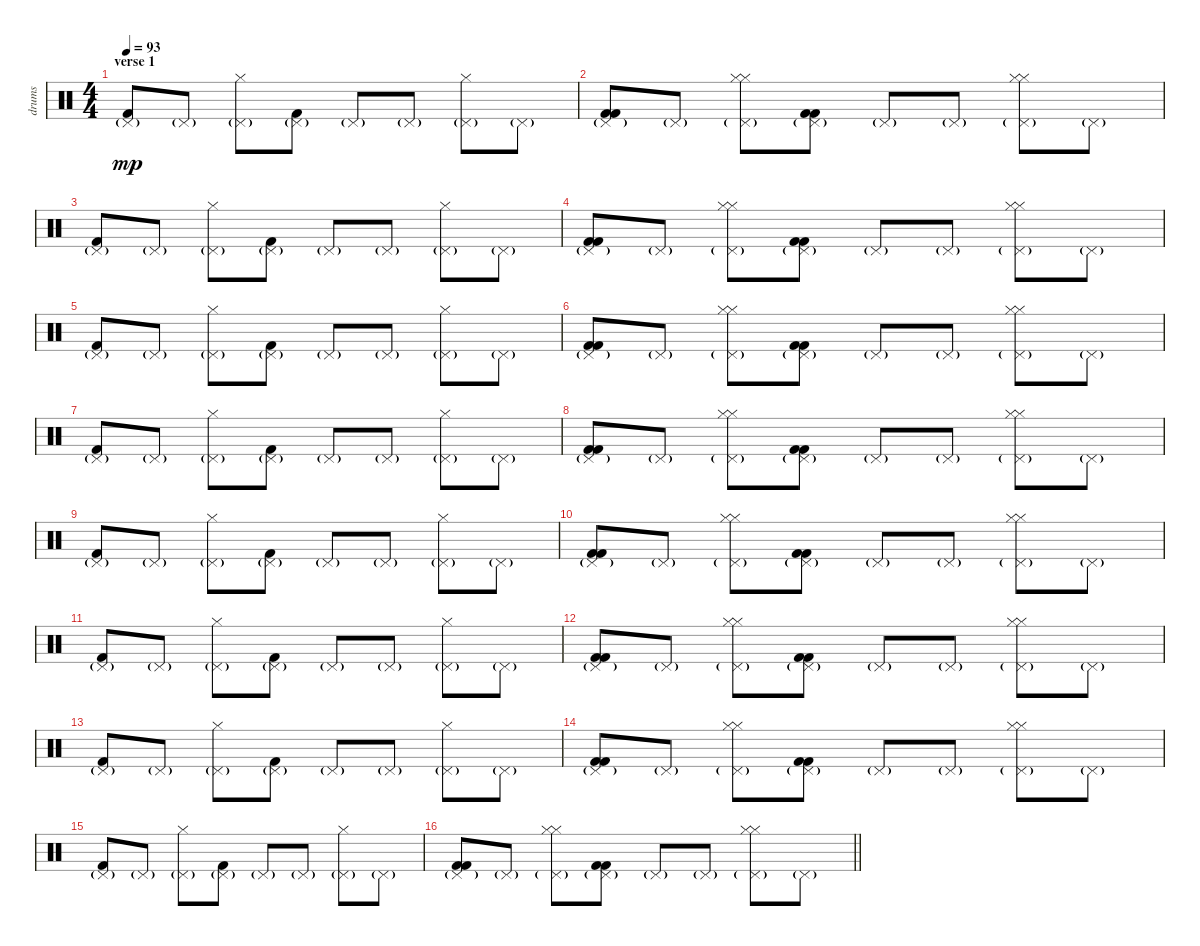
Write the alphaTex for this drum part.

\track ("drums" "drums") {instrument percussion}
\staff {score}
\articulation defaults
\ts (4 4)
\section ("" "verse 1")
\tempo 93
\clef neutral
\ks c
("Kick (hit) 2" "Pedal Hi-Hat (hit)"{g}).8{dy mp} "Pedal Hi-Hat (hit)"{g}.8 ("Hi-Hat (closed)" "Pedal Hi-Hat (hit)"{g}).8 ("Kick (hit) 2" "Pedal Hi-Hat (hit)"{g}).8 "Pedal Hi-Hat (hit)"{g}.8 "Pedal Hi-Hat (hit)"{g}.8 ("Hi-Hat (closed)" "Pedal Hi-Hat (hit)"{g}).8 "Pedal Hi-Hat (hit)"{g}.8 |
("Kick (hit) 2" "Kick (hit) 2" "Pedal Hi-Hat (hit)"{g}).8 "Pedal Hi-Hat (hit)"{g}.8 ("Hi-Hat (closed)" "Hi-Hat (closed)" "Pedal Hi-Hat (hit)"{g}).8 ("Kick (hit) 2" "Kick (hit) 2" "Pedal Hi-Hat (hit)"{g}).8 "Pedal Hi-Hat (hit)"{g}.8 "Pedal Hi-Hat (hit)"{g}.8 ("Hi-Hat (closed)" "Hi-Hat (closed)" "Pedal Hi-Hat (hit)"{g}).8 "Pedal Hi-Hat (hit)"{g}.8 |
("Kick (hit) 2" "Pedal Hi-Hat (hit)"{g}).8 "Pedal Hi-Hat (hit)"{g}.8 ("Hi-Hat (closed)" "Pedal Hi-Hat (hit)"{g}).8 ("Kick (hit) 2" "Pedal Hi-Hat (hit)"{g}).8 "Pedal Hi-Hat (hit)"{g}.8 "Pedal Hi-Hat (hit)"{g}.8 ("Hi-Hat (closed)" "Pedal Hi-Hat (hit)"{g}).8 "Pedal Hi-Hat (hit)"{g}.8 |
("Kick (hit) 2" "Kick (hit) 2" "Pedal Hi-Hat (hit)"{g}).8 "Pedal Hi-Hat (hit)"{g}.8 ("Hi-Hat (closed)" "Hi-Hat (closed)" "Pedal Hi-Hat (hit)"{g}).8 ("Kick (hit) 2" "Kick (hit) 2" "Pedal Hi-Hat (hit)"{g}).8 "Pedal Hi-Hat (hit)"{g}.8 "Pedal Hi-Hat (hit)"{g}.8 ("Hi-Hat (closed)" "Hi-Hat (closed)" "Pedal Hi-Hat (hit)"{g}).8 "Pedal Hi-Hat (hit)"{g}.8 |
("Kick (hit) 2" "Pedal Hi-Hat (hit)"{g}).8 "Pedal Hi-Hat (hit)"{g}.8 ("Hi-Hat (closed)" "Pedal Hi-Hat (hit)"{g}).8 ("Kick (hit) 2" "Pedal Hi-Hat (hit)"{g}).8 "Pedal Hi-Hat (hit)"{g}.8 "Pedal Hi-Hat (hit)"{g}.8 ("Hi-Hat (closed)" "Pedal Hi-Hat (hit)"{g}).8 "Pedal Hi-Hat (hit)"{g}.8 |
("Kick (hit) 2" "Kick (hit) 2" "Pedal Hi-Hat (hit)"{g}).8 "Pedal Hi-Hat (hit)"{g}.8 ("Hi-Hat (closed)" "Hi-Hat (closed)" "Pedal Hi-Hat (hit)"{g}).8 ("Kick (hit) 2" "Kick (hit) 2" "Pedal Hi-Hat (hit)"{g}).8 "Pedal Hi-Hat (hit)"{g}.8 "Pedal Hi-Hat (hit)"{g}.8 ("Hi-Hat (closed)" "Hi-Hat (closed)" "Pedal Hi-Hat (hit)"{g}).8 "Pedal Hi-Hat (hit)"{g}.8 |
("Kick (hit) 2" "Pedal Hi-Hat (hit)"{g}).8 "Pedal Hi-Hat (hit)"{g}.8 ("Hi-Hat (closed)" "Pedal Hi-Hat (hit)"{g}).8 ("Kick (hit) 2" "Pedal Hi-Hat (hit)"{g}).8 "Pedal Hi-Hat (hit)"{g}.8 "Pedal Hi-Hat (hit)"{g}.8 ("Hi-Hat (closed)" "Pedal Hi-Hat (hit)"{g}).8 "Pedal Hi-Hat (hit)"{g}.8 |
("Kick (hit) 2" "Kick (hit) 2" "Pedal Hi-Hat (hit)"{g}).8 "Pedal Hi-Hat (hit)"{g}.8 ("Hi-Hat (closed)" "Hi-Hat (closed)" "Pedal Hi-Hat (hit)"{g}).8 ("Kick (hit) 2" "Kick (hit) 2" "Pedal Hi-Hat (hit)"{g}).8 "Pedal Hi-Hat (hit)"{g}.8 "Pedal Hi-Hat (hit)"{g}.8 ("Hi-Hat (closed)" "Hi-Hat (closed)" "Pedal Hi-Hat (hit)"{g}).8 "Pedal Hi-Hat (hit)"{g}.8 |
("Kick (hit) 2" "Pedal Hi-Hat (hit)"{g}).8 "Pedal Hi-Hat (hit)"{g}.8 ("Hi-Hat (closed)" "Pedal Hi-Hat (hit)"{g}).8 ("Kick (hit) 2" "Pedal Hi-Hat (hit)"{g}).8 "Pedal Hi-Hat (hit)"{g}.8 "Pedal Hi-Hat (hit)"{g}.8 ("Hi-Hat (closed)" "Pedal Hi-Hat (hit)"{g}).8 "Pedal Hi-Hat (hit)"{g}.8 |
("Kick (hit) 2" "Kick (hit) 2" "Pedal Hi-Hat (hit)"{g}).8 "Pedal Hi-Hat (hit)"{g}.8 ("Hi-Hat (closed)" "Hi-Hat (closed)" "Pedal Hi-Hat (hit)"{g}).8 ("Kick (hit) 2" "Kick (hit) 2" "Pedal Hi-Hat (hit)"{g}).8 "Pedal Hi-Hat (hit)"{g}.8 "Pedal Hi-Hat (hit)"{g}.8 ("Hi-Hat (closed)" "Hi-Hat (closed)" "Pedal Hi-Hat (hit)"{g}).8 "Pedal Hi-Hat (hit)"{g}.8 |
("Kick (hit) 2" "Pedal Hi-Hat (hit)"{g}).8 "Pedal Hi-Hat (hit)"{g}.8 ("Hi-Hat (closed)" "Pedal Hi-Hat (hit)"{g}).8 ("Kick (hit) 2" "Pedal Hi-Hat (hit)"{g}).8 "Pedal Hi-Hat (hit)"{g}.8 "Pedal Hi-Hat (hit)"{g}.8 ("Hi-Hat (closed)" "Pedal Hi-Hat (hit)"{g}).8 "Pedal Hi-Hat (hit)"{g}.8 |
("Kick (hit) 2" "Kick (hit) 2" "Pedal Hi-Hat (hit)"{g}).8 "Pedal Hi-Hat (hit)"{g}.8 ("Hi-Hat (closed)" "Hi-Hat (closed)" "Pedal Hi-Hat (hit)"{g}).8 ("Kick (hit) 2" "Kick (hit) 2" "Pedal Hi-Hat (hit)"{g}).8 "Pedal Hi-Hat (hit)"{g}.8 "Pedal Hi-Hat (hit)"{g}.8 ("Hi-Hat (closed)" "Hi-Hat (closed)" "Pedal Hi-Hat (hit)"{g}).8 "Pedal Hi-Hat (hit)"{g}.8 |
("Kick (hit) 2" "Pedal Hi-Hat (hit)"{g}).8 "Pedal Hi-Hat (hit)"{g}.8 ("Hi-Hat (closed)" "Pedal Hi-Hat (hit)"{g}).8 ("Kick (hit) 2" "Pedal Hi-Hat (hit)"{g}).8 "Pedal Hi-Hat (hit)"{g}.8 "Pedal Hi-Hat (hit)"{g}.8 ("Hi-Hat (closed)" "Pedal Hi-Hat (hit)"{g}).8 "Pedal Hi-Hat (hit)"{g}.8 |
("Kick (hit) 2" "Kick (hit) 2" "Pedal Hi-Hat (hit)"{g}).8 "Pedal Hi-Hat (hit)"{g}.8 ("Hi-Hat (closed)" "Hi-Hat (closed)" "Pedal Hi-Hat (hit)"{g}).8 ("Kick (hit) 2" "Kick (hit) 2" "Pedal Hi-Hat (hit)"{g}).8 "Pedal Hi-Hat (hit)"{g}.8 "Pedal Hi-Hat (hit)"{g}.8 ("Hi-Hat (closed)" "Hi-Hat (closed)" "Pedal Hi-Hat (hit)"{g}).8 "Pedal Hi-Hat (hit)"{g}.8 |
("Kick (hit) 2" "Pedal Hi-Hat (hit)"{g}).8 "Pedal Hi-Hat (hit)"{g}.8 ("Hi-Hat (closed)" "Pedal Hi-Hat (hit)"{g}).8 ("Kick (hit) 2" "Pedal Hi-Hat (hit)"{g}).8 "Pedal Hi-Hat (hit)"{g}.8 "Pedal Hi-Hat (hit)"{g}.8 ("Hi-Hat (closed)" "Pedal Hi-Hat (hit)"{g}).8 "Pedal Hi-Hat (hit)"{g}.8 |
\barLineRight lightlight
("Kick (hit) 2" "Kick (hit) 2" "Pedal Hi-Hat (hit)"{g}).8 "Pedal Hi-Hat (hit)"{g}.8 ("Hi-Hat (closed)" "Hi-Hat (closed)" "Pedal Hi-Hat (hit)"{g}).8 ("Kick (hit) 2" "Kick (hit) 2" "Pedal Hi-Hat (hit)"{g}).8 "Pedal Hi-Hat (hit)"{g}.8 "Pedal Hi-Hat (hit)"{g}.8 ("Hi-Hat (closed)" "Hi-Hat (closed)" "Pedal Hi-Hat (hit)"{g}).8 "Pedal Hi-Hat (hit)"{g}.8
